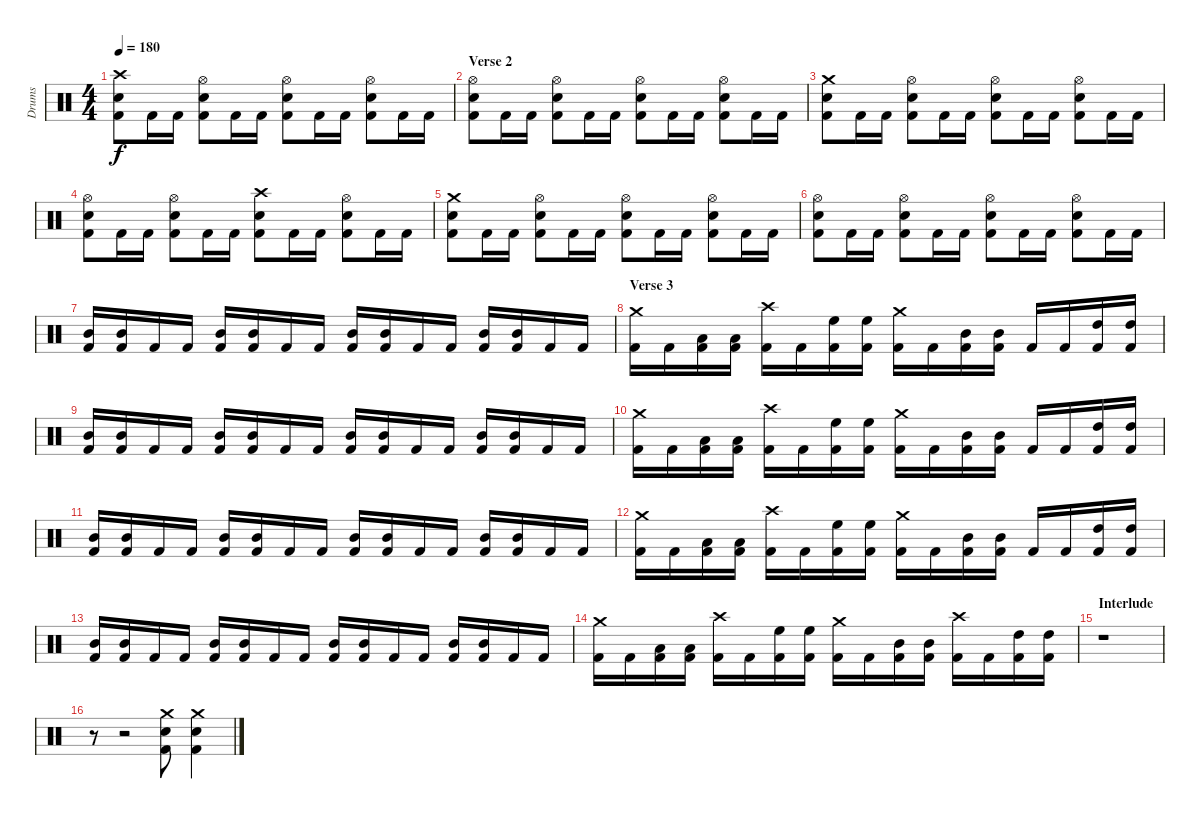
\track ("Drums" "Drums") {instrument percussion}
\staff {score}
\articulation defaults
\ts (4 4)
\tempo 180
\clef neutral
\ks c
("Kick (hit) 2" "Electric Snare (hit)" "Crash high (hit)").8{dy f} "Kick (hit) 2".16 "Kick (hit) 2".16 ("Kick (hit) 2" "Electric Snare (hit)" "Hi-Hat (open)").8 "Kick (hit) 2".16 "Kick (hit) 2".16 ("Kick (hit) 2" "Electric Snare (hit)" "Hi-Hat (open)").8 "Kick (hit) 2".16 "Kick (hit) 2".16 ("Kick (hit) 2" "Electric Snare (hit)" "Hi-Hat (open)").8 "Kick (hit) 2".16 "Kick (hit) 2".16 |
\section ("" "Verse 2 ")
("Kick (hit) 2" "Electric Snare (hit)" "Hi-Hat (open)").8 "Kick (hit) 2".16 "Kick (hit) 2".16 ("Kick (hit) 2" "Electric Snare (hit)" "Hi-Hat (open)").8 "Kick (hit) 2".16 "Kick (hit) 2".16 ("Kick (hit) 2" "Electric Snare (hit)" "Hi-Hat (open)").8 "Kick (hit) 2".16 "Kick (hit) 2".16 ("Kick (hit) 2" "Electric Snare (hit)" "Hi-Hat (open)").8 "Kick (hit) 2".16 "Kick (hit) 2".16 |
("Kick (hit) 2" "Electric Snare (hit)" "Crash medium (hit)").8 "Kick (hit) 2".16 "Kick (hit) 2".16 ("Kick (hit) 2" "Electric Snare (hit)" "Hi-Hat (open)").8 "Kick (hit) 2".16 "Kick (hit) 2".16 ("Kick (hit) 2" "Electric Snare (hit)" "Hi-Hat (open)").8 "Kick (hit) 2".16 "Kick (hit) 2".16 ("Kick (hit) 2" "Electric Snare (hit)" "Hi-Hat (open)").8 "Kick (hit) 2".16 "Kick (hit) 2".16 |
("Kick (hit) 2" "Electric Snare (hit)" "Hi-Hat (open)").8 "Kick (hit) 2".16 "Kick (hit) 2".16 ("Kick (hit) 2" "Electric Snare (hit)" "Hi-Hat (open)").8 "Kick (hit) 2".16 "Kick (hit) 2".16 ("Kick (hit) 2" "Electric Snare (hit)" "Crash high (hit)").8 "Kick (hit) 2".16 "Kick (hit) 2".16 ("Kick (hit) 2" "Electric Snare (hit)" "Hi-Hat (open)").8 "Kick (hit) 2".16 "Kick (hit) 2".16 |
("Kick (hit) 2" "Electric Snare (hit)" "Crash medium (hit)").8 "Kick (hit) 2".16 "Kick (hit) 2".16 ("Kick (hit) 2" "Electric Snare (hit)" "Hi-Hat (open)").8 "Kick (hit) 2".16 "Kick (hit) 2".16 ("Kick (hit) 2" "Electric Snare (hit)" "Hi-Hat (open)").8 "Kick (hit) 2".16 "Kick (hit) 2".16 ("Kick (hit) 2" "Electric Snare (hit)" "Hi-Hat (open)").8 "Kick (hit) 2".16 "Kick (hit) 2".16 |
("Kick (hit) 2" "Electric Snare (hit)" "Hi-Hat (open)").8 "Kick (hit) 2".16 "Kick (hit) 2".16 ("Kick (hit) 2" "Electric Snare (hit)" "Hi-Hat (open)").8 "Kick (hit) 2".16 "Kick (hit) 2".16 ("Kick (hit) 2" "Electric Snare (hit)" "Hi-Hat (open)").8 "Kick (hit) 2".16 "Kick (hit) 2".16 ("Kick (hit) 2" "Electric Snare (hit)" "Hi-Hat (open)").8 "Kick (hit) 2".16 "Kick (hit) 2".16 |
("Kick (hit) 2" "Mid Tom (hit)").16 ("Kick (hit) 2" "Mid Tom (hit)").16 "Kick (hit) 2".16 "Kick (hit) 2".16 ("Kick (hit) 2" "Mid Tom (hit)").16 ("Kick (hit) 2" "Mid Tom (hit)").16 "Kick (hit) 2".16 "Kick (hit) 2".16 ("Kick (hit) 2" "Mid Tom (hit)").16 ("Kick (hit) 2" "Mid Tom (hit)").16 "Kick (hit) 2".16 "Kick (hit) 2".16 ("Kick (hit) 2" "Mid Tom (hit)").16 ("Kick (hit) 2" "Mid Tom (hit)").16 "Kick (hit) 2".16 "Kick (hit) 2".16 |
\section ("" "Verse 3")
("Kick (hit) 2" "Crash medium (hit)").16 "Kick (hit) 2".16 ("Kick (hit) 2" "Low Tom (hit)").16 ("Kick (hit) 2" "Low Tom (hit)").16 ("Kick (hit) 2" "Crash high (hit)").16 "Kick (hit) 2".16 ("Kick (hit) 2" "High Floor Tom (hit)").16 ("Kick (hit) 2" "High Floor Tom (hit)").16 ("Kick (hit) 2" "Crash medium (hit)").16 "Kick (hit) 2".16 ("Kick (hit) 2" "Mid Tom (hit)").16 ("Kick (hit) 2" "Mid Tom (hit)").16 "Kick (hit) 2".16 "Kick (hit) 2".16 ("Kick (hit) 2" "High Tom (hit)").16 ("Kick (hit) 2" "High Tom (hit)").16 |
("Kick (hit) 2" "Mid Tom (hit)").16 ("Kick (hit) 2" "Mid Tom (hit)").16 "Kick (hit) 2".16 "Kick (hit) 2".16 ("Kick (hit) 2" "Mid Tom (hit)").16 ("Kick (hit) 2" "Mid Tom (hit)").16 "Kick (hit) 2".16 "Kick (hit) 2".16 ("Kick (hit) 2" "Mid Tom (hit)").16 ("Kick (hit) 2" "Mid Tom (hit)").16 "Kick (hit) 2".16 "Kick (hit) 2".16 ("Kick (hit) 2" "Mid Tom (hit)").16 ("Kick (hit) 2" "Mid Tom (hit)").16 "Kick (hit) 2".16 "Kick (hit) 2".16 |
("Kick (hit) 2" "Crash medium (hit)").16 "Kick (hit) 2".16 ("Kick (hit) 2" "Low Tom (hit)").16 ("Kick (hit) 2" "Low Tom (hit)").16 ("Kick (hit) 2" "Crash high (hit)").16 "Kick (hit) 2".16 ("Kick (hit) 2" "High Floor Tom (hit)").16 ("Kick (hit) 2" "High Floor Tom (hit)").16 ("Kick (hit) 2" "Crash medium (hit)").16 "Kick (hit) 2".16 ("Kick (hit) 2" "Mid Tom (hit)").16 ("Kick (hit) 2" "Mid Tom (hit)").16 "Kick (hit) 2".16 "Kick (hit) 2".16 ("Kick (hit) 2" "High Tom (hit)").16 ("Kick (hit) 2" "High Tom (hit)").16 |
("Kick (hit) 2" "Mid Tom (hit)").16 ("Kick (hit) 2" "Mid Tom (hit)").16 "Kick (hit) 2".16 "Kick (hit) 2".16 ("Kick (hit) 2" "Mid Tom (hit)").16 ("Kick (hit) 2" "Mid Tom (hit)").16 "Kick (hit) 2".16 "Kick (hit) 2".16 ("Kick (hit) 2" "Mid Tom (hit)").16 ("Kick (hit) 2" "Mid Tom (hit)").16 "Kick (hit) 2".16 "Kick (hit) 2".16 ("Kick (hit) 2" "Mid Tom (hit)").16 ("Kick (hit) 2" "Mid Tom (hit)").16 "Kick (hit) 2".16 "Kick (hit) 2".16 |
("Kick (hit) 2" "Crash medium (hit)").16 "Kick (hit) 2".16 ("Kick (hit) 2" "Low Tom (hit)").16 ("Kick (hit) 2" "Low Tom (hit)").16 ("Kick (hit) 2" "Crash high (hit)").16 "Kick (hit) 2".16 ("Kick (hit) 2" "High Floor Tom (hit)").16 ("Kick (hit) 2" "High Floor Tom (hit)").16 ("Kick (hit) 2" "Crash medium (hit)").16 "Kick (hit) 2".16 ("Kick (hit) 2" "Mid Tom (hit)").16 ("Kick (hit) 2" "Mid Tom (hit)").16 "Kick (hit) 2".16 "Kick (hit) 2".16 ("Kick (hit) 2" "High Tom (hit)").16 ("Kick (hit) 2" "High Tom (hit)").16 |
("Kick (hit) 2" "Mid Tom (hit)").16 ("Kick (hit) 2" "Mid Tom (hit)").16 "Kick (hit) 2".16 "Kick (hit) 2".16 ("Kick (hit) 2" "Mid Tom (hit)").16 ("Kick (hit) 2" "Mid Tom (hit)").16 "Kick (hit) 2".16 "Kick (hit) 2".16 ("Kick (hit) 2" "Mid Tom (hit)").16 ("Kick (hit) 2" "Mid Tom (hit)").16 "Kick (hit) 2".16 "Kick (hit) 2".16 ("Kick (hit) 2" "Mid Tom (hit)").16 ("Kick (hit) 2" "Mid Tom (hit)").16 "Kick (hit) 2".16 "Kick (hit) 2".16 |
("Kick (hit) 2" "Crash medium (hit)").16 "Kick (hit) 2".16 ("Kick (hit) 2" "Low Tom (hit)").16 ("Kick (hit) 2" "Low Tom (hit)").16 ("Kick (hit) 2" "Crash high (hit)").16 "Kick (hit) 2".16 ("Kick (hit) 2" "High Floor Tom (hit)").16 ("Kick (hit) 2" "High Floor Tom (hit)").16 ("Kick (hit) 2" "Crash medium (hit)").16 "Kick (hit) 2".16 ("Kick (hit) 2" "Mid Tom (hit)").16 ("Kick (hit) 2" "Mid Tom (hit)").16 ("Kick (hit) 2" "Crash high (hit)").16 "Kick (hit) 2".16 ("Kick (hit) 2" "High Tom (hit)").16 ("Kick (hit) 2" "High Tom (hit)").16 |
\section ("" "Interlude")
r.1 |
r.8 r.2 ("Kick (hit) 2" "Electric Snare (hit)" "Crash medium (hit)").8 ("Kick (hit) 2" "Electric Snare (hit)" "Crash medium (hit)").4
